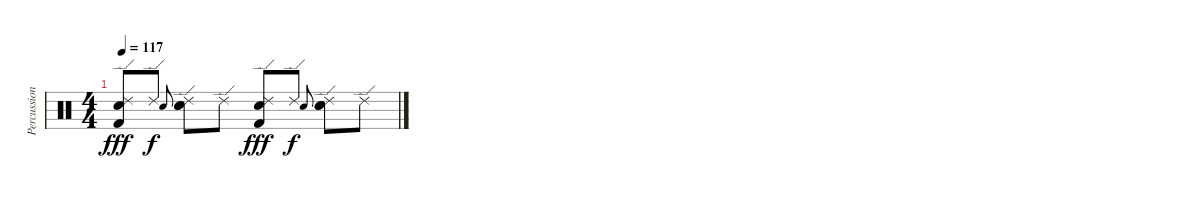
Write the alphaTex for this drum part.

\track ("Percussion" "Percussion") {instrument percussion}
\staff {score}
\articulation defaults
\ts (4 4)
\tempo 117
\clef neutral
\ks c
("Ride (edge) 2" "Electric Snare (hit)" "Kick (hit) 2").8{dy fff} "Ride (edge) 2".8{dy f} "Electric Snare (hit)".8{gr onbeat} ("Ride (edge) 2" "Electric Snare (hit)" "Electric Snare (hit)").8 "Ride (edge) 2".8 ("Ride (edge) 2" "Electric Snare (hit)" "Kick (hit) 2").8{dy fff} "Ride (edge) 2".8{dy f} "Electric Snare (hit)".8{gr onbeat} ("Ride (edge) 2" "Electric Snare (hit)" "Electric Snare (hit)").8 "Ride (edge) 2".8
